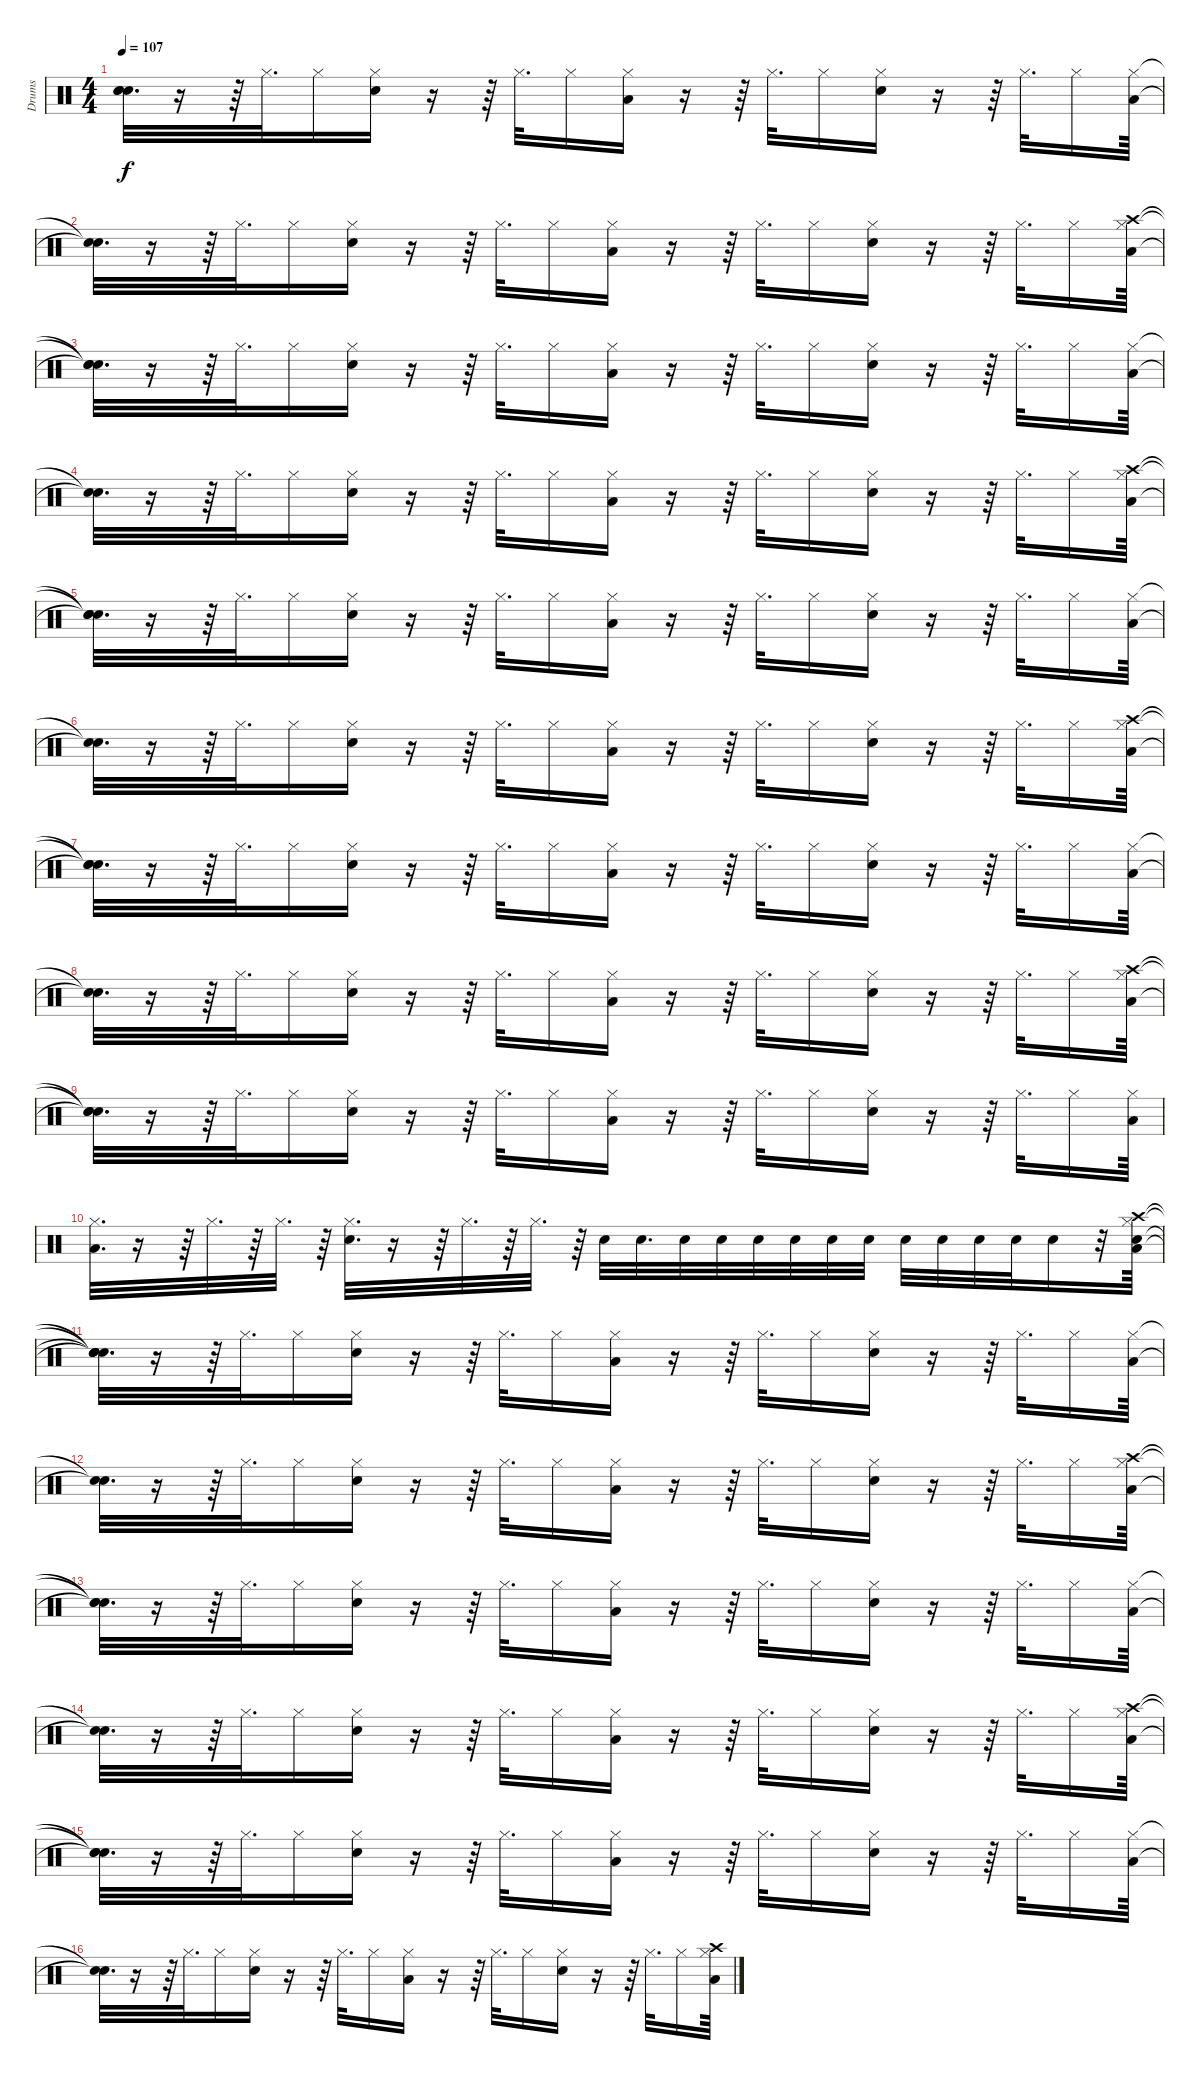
\track ("Drums" "Drums") {instrument percussion}
\staff {score}
\articulation defaults
\ts (4 4)
\tempo 107
\clef neutral
\ks c
("Snare (hit)"{t} "Snare (hit)"{t} "Snare (hit)"{t}).32{d dy f} r.16 r.64 "Hi-Hat (closed)".32{d} "Hi-Hat (closed)".16 ("Hi-Hat (closed)" "Snare (hit) 2").16 r.16 r.64 "Hi-Hat (closed)".32{d} "Hi-Hat (closed)".16 ("Hi-Hat (closed)" "Low Tom (hit)").16 r.16 r.64 "Hi-Hat (closed)".32{d} "Hi-Hat (closed)".16 ("Hi-Hat (closed)" "Snare (hit) 2").16 r.16 r.64 "Hi-Hat (closed)".32{d} "Hi-Hat (closed)".16 ("Hi-Hat (closed)" "Low Tom (hit)").64 |
("Snare (hit)"{t} "Snare (hit)"{t}).32{d} r.16 r.64 "Hi-Hat (closed)".32{d} "Hi-Hat (closed)".16 ("Hi-Hat (closed)" "Snare (hit) 2").16 r.16 r.64 "Hi-Hat (closed)".32{d} "Hi-Hat (closed)".16 ("Hi-Hat (closed)" "Low Tom (hit)").16 r.16 r.64 "Hi-Hat (closed)".32{d} "Hi-Hat (closed)".16 ("Hi-Hat (closed)" "Snare (hit) 2").16 r.16 r.64 "Hi-Hat (closed)".32{d} "Hi-Hat (closed)".16 ("Hi-Hat (closed)" "Crash high (hit)" "Low Tom (hit)").64 |
("Snare (hit)"{t} "Snare (hit)"{t} "Snare (hit)"{t}).32{d} r.16 r.64 "Hi-Hat (closed)".32{d} "Hi-Hat (closed)".16 ("Hi-Hat (closed)" "Snare (hit) 2").16 r.16 r.64 "Hi-Hat (closed)".32{d} "Hi-Hat (closed)".16 ("Hi-Hat (closed)" "Low Tom (hit)").16 r.16 r.64 "Hi-Hat (closed)".32{d} "Hi-Hat (closed)".16 ("Hi-Hat (closed)" "Snare (hit) 2").16 r.16 r.64 "Hi-Hat (closed)".32{d} "Hi-Hat (closed)".16 ("Hi-Hat (closed)" "Low Tom (hit)").64 |
("Snare (hit)"{t} "Snare (hit)"{t}).32{d} r.16 r.64 "Hi-Hat (closed)".32{d} "Hi-Hat (closed)".16 ("Hi-Hat (closed)" "Snare (hit) 2").16 r.16 r.64 "Hi-Hat (closed)".32{d} "Hi-Hat (closed)".16 ("Hi-Hat (closed)" "Low Tom (hit)").16 r.16 r.64 "Hi-Hat (closed)".32{d} "Hi-Hat (closed)".16 ("Hi-Hat (closed)" "Snare (hit) 2").16 r.16 r.64 "Hi-Hat (closed)".32{d} "Hi-Hat (closed)".16 ("Hi-Hat (closed)" "Crash high (hit)" "Low Tom (hit)").64 |
("Snare (hit)"{t} "Snare (hit)"{t} "Snare (hit)"{t}).32{d} r.16 r.64 "Hi-Hat (closed)".32{d} "Hi-Hat (closed)".16 ("Hi-Hat (closed)" "Snare (hit) 2").16 r.16 r.64 "Hi-Hat (closed)".32{d} "Hi-Hat (closed)".16 ("Hi-Hat (closed)" "Low Tom (hit)").16 r.16 r.64 "Hi-Hat (closed)".32{d} "Hi-Hat (closed)".16 ("Hi-Hat (closed)" "Snare (hit) 2").16 r.16 r.64 "Hi-Hat (closed)".32{d} "Hi-Hat (closed)".16 ("Hi-Hat (closed)" "Low Tom (hit)").64 |
("Snare (hit)"{t} "Snare (hit)"{t}).32{d} r.16 r.64 "Hi-Hat (closed)".32{d} "Hi-Hat (closed)".16 ("Hi-Hat (closed)" "Snare (hit) 2").16 r.16 r.64 "Hi-Hat (closed)".32{d} "Hi-Hat (closed)".16 ("Hi-Hat (closed)" "Low Tom (hit)").16 r.16 r.64 "Hi-Hat (closed)".32{d} "Hi-Hat (closed)".16 ("Hi-Hat (closed)" "Snare (hit) 2").16 r.16 r.64 "Hi-Hat (closed)".32{d} "Hi-Hat (closed)".16 ("Hi-Hat (closed)" "Crash high (hit)" "Low Tom (hit)").64 |
("Snare (hit)"{t} "Snare (hit)"{t} "Snare (hit)"{t}).32{d} r.16 r.64 "Hi-Hat (closed)".32{d} "Hi-Hat (closed)".16 ("Hi-Hat (closed)" "Snare (hit) 2").16 r.16 r.64 "Hi-Hat (closed)".32{d} "Hi-Hat (closed)".16 ("Hi-Hat (closed)" "Low Tom (hit)").16 r.16 r.64 "Hi-Hat (closed)".32{d} "Hi-Hat (closed)".16 ("Hi-Hat (closed)" "Snare (hit) 2").16 r.16 r.64 "Hi-Hat (closed)".32{d} "Hi-Hat (closed)".16 ("Hi-Hat (closed)" "Low Tom (hit)").64 |
("Snare (hit)"{t} "Snare (hit)"{t}).32{d} r.16 r.64 "Hi-Hat (closed)".32{d} "Hi-Hat (closed)".16 ("Hi-Hat (closed)" "Snare (hit) 2").16 r.16 r.64 "Hi-Hat (closed)".32{d} "Hi-Hat (closed)".16 ("Hi-Hat (closed)" "Low Tom (hit)").16 r.16 r.64 "Hi-Hat (closed)".32{d} "Hi-Hat (closed)".16 ("Hi-Hat (closed)" "Snare (hit) 2").16 r.16 r.64 "Hi-Hat (closed)".32{d} "Hi-Hat (closed)".16 ("Hi-Hat (closed)" "Crash high (hit)" "Low Tom (hit)").64 |
("Snare (hit)"{t} "Snare (hit)"{t} "Snare (hit)"{t}).32{d} r.16 r.64 "Hi-Hat (closed)".32{d} "Hi-Hat (closed)".16 ("Hi-Hat (closed)" "Snare (hit) 2").16 r.16 r.64 "Hi-Hat (closed)".32{d} "Hi-Hat (closed)".16 ("Hi-Hat (closed)" "Low Tom (hit)").16 r.16 r.64 "Hi-Hat (closed)".32{d} "Hi-Hat (closed)".16 ("Hi-Hat (closed)" "Snare (hit) 2").16 r.16 r.64 "Hi-Hat (closed)".32{d} "Hi-Hat (closed)".16 ("Hi-Hat (closed)" "Low Tom (hit)").64 |
("Hi-Hat (closed)" "Low Tom (hit)").32{d} r.16 r.64 "Hi-Hat (closed)".32{d} r.64 "Hi-Hat (closed)".32{d} r.64 ("Hi-Hat (closed)" "Snare (hit) 2").32{d} r.16 r.64 "Hi-Hat (closed)".32{d} r.64 "Hi-Hat (closed)".32{d} r.64 "Snare (hit) 2".32 "Snare (hit) 2".32{d} "Snare (hit) 2".32 "Snare (hit) 2".32 "Snare (hit) 2".32 "Snare (hit) 2".32 "Snare (hit) 2".32 "Snare (hit) 2".32 "Snare (hit) 2".32 "Snare (hit) 2".32 "Snare (hit) 2".32 "Snare (hit) 2".32 "Snare (hit) 2".16 r.32 ("Hi-Hat (closed)" "Crash high (hit)" "Low Tom (hit)" "Snare (hit) 2").64 |
("Snare (hit)"{t} "Snare (hit)"{t} "Snare (hit)"{t} "Snare (hit)"{t}).32{d} r.16 r.64 "Hi-Hat (closed)".32{d} "Hi-Hat (closed)".16 ("Hi-Hat (closed)" "Snare (hit) 2").16 r.16 r.64 "Hi-Hat (closed)".32{d} "Hi-Hat (closed)".16 ("Hi-Hat (closed)" "Low Tom (hit)").16 r.16 r.64 "Hi-Hat (closed)".32{d} "Hi-Hat (closed)".16 ("Hi-Hat (closed)" "Snare (hit) 2").16 r.16 r.64 "Hi-Hat (closed)".32{d} "Hi-Hat (closed)".16 ("Hi-Hat (closed)" "Low Tom (hit)").64 |
("Snare (hit)"{t} "Snare (hit)"{t}).32{d} r.16 r.64 "Hi-Hat (closed)".32{d} "Hi-Hat (closed)".16 ("Hi-Hat (closed)" "Snare (hit) 2").16 r.16 r.64 "Hi-Hat (closed)".32{d} "Hi-Hat (closed)".16 ("Hi-Hat (closed)" "Low Tom (hit)").16 r.16 r.64 "Hi-Hat (closed)".32{d} "Hi-Hat (closed)".16 ("Hi-Hat (closed)" "Snare (hit) 2").16 r.16 r.64 "Hi-Hat (closed)".32{d} "Hi-Hat (closed)".16 ("Hi-Hat (closed)" "Crash high (hit)" "Low Tom (hit)").64 |
("Snare (hit)"{t} "Snare (hit)"{t} "Snare (hit)"{t}).32{d} r.16 r.64 "Hi-Hat (closed)".32{d} "Hi-Hat (closed)".16 ("Hi-Hat (closed)" "Snare (hit) 2").16 r.16 r.64 "Hi-Hat (closed)".32{d} "Hi-Hat (closed)".16 ("Hi-Hat (closed)" "Low Tom (hit)").16 r.16 r.64 "Hi-Hat (closed)".32{d} "Hi-Hat (closed)".16 ("Hi-Hat (closed)" "Snare (hit) 2").16 r.16 r.64 "Hi-Hat (closed)".32{d} "Hi-Hat (closed)".16 ("Hi-Hat (closed)" "Low Tom (hit)").64 |
("Snare (hit)"{t} "Snare (hit)"{t}).32{d} r.16 r.64 "Hi-Hat (closed)".32{d} "Hi-Hat (closed)".16 ("Hi-Hat (closed)" "Snare (hit) 2").16 r.16 r.64 "Hi-Hat (closed)".32{d} "Hi-Hat (closed)".16 ("Hi-Hat (closed)" "Low Tom (hit)").16 r.16 r.64 "Hi-Hat (closed)".32{d} "Hi-Hat (closed)".16 ("Hi-Hat (closed)" "Snare (hit) 2").16 r.16 r.64 "Hi-Hat (closed)".32{d} "Hi-Hat (closed)".16 ("Hi-Hat (closed)" "Crash high (hit)" "Low Tom (hit)").64 |
("Snare (hit)"{t} "Snare (hit)"{t} "Snare (hit)"{t}).32{d} r.16 r.64 "Hi-Hat (closed)".32{d} "Hi-Hat (closed)".16 ("Hi-Hat (closed)" "Snare (hit) 2").16 r.16 r.64 "Hi-Hat (closed)".32{d} "Hi-Hat (closed)".16 ("Hi-Hat (closed)" "Low Tom (hit)").16 r.16 r.64 "Hi-Hat (closed)".32{d} "Hi-Hat (closed)".16 ("Hi-Hat (closed)" "Snare (hit) 2").16 r.16 r.64 "Hi-Hat (closed)".32{d} "Hi-Hat (closed)".16 ("Hi-Hat (closed)" "Low Tom (hit)").64 |
("Snare (hit)"{t} "Snare (hit)"{t}).32{d} r.16 r.64 "Hi-Hat (closed)".32{d} "Hi-Hat (closed)".16 ("Hi-Hat (closed)" "Snare (hit) 2").16 r.16 r.64 "Hi-Hat (closed)".32{d} "Hi-Hat (closed)".16 ("Hi-Hat (closed)" "Low Tom (hit)").16 r.16 r.64 "Hi-Hat (closed)".32{d} "Hi-Hat (closed)".16 ("Hi-Hat (closed)" "Snare (hit) 2").16 r.16 r.64 "Hi-Hat (closed)".32{d} "Hi-Hat (closed)".16 ("Hi-Hat (closed)" "Crash high (hit)" "Low Tom (hit)").64
